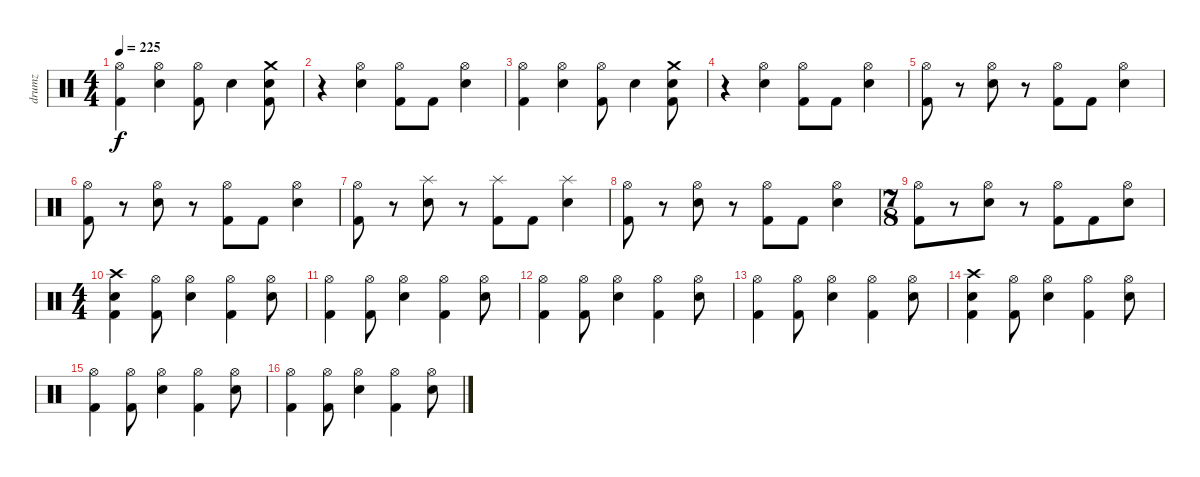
\track ("drumz" "drumz") {instrument percussion}
\staff {score}
\articulation defaults
\ts (4 4)
\tempo 225
\clef neutral
\ks c
("Hi-Hat (open)" "Kick (hit) 2").4{dy f} ("Hi-Hat (open)" "Electric Snare (hit)").4 ("Hi-Hat (open)" "Kick (hit) 2").8 "Electric Snare (hit)".4 ("Crash medium (hit)" "Electric Snare (hit)" "Kick (hit) 2").8 |
r.4 ("Hi-Hat (open)" "Electric Snare (hit)").4 ("Hi-Hat (open)" "Kick (hit) 2").8 "Kick (hit) 2".8 ("Hi-Hat (open)" "Electric Snare (hit)").4 |
("Hi-Hat (open)" "Kick (hit) 2").4 ("Hi-Hat (open)" "Electric Snare (hit)").4 ("Hi-Hat (open)" "Kick (hit) 2").8 "Electric Snare (hit)".4 ("Crash medium (hit)" "Electric Snare (hit)" "Kick (hit) 2").8 |
r.4 ("Hi-Hat (open)" "Electric Snare (hit)").4 ("Hi-Hat (open)" "Kick (hit) 2").8 "Kick (hit) 2".8 ("Hi-Hat (open)" "Electric Snare (hit)").4 |
("Hi-Hat (open)" "Kick (hit) 2").8 r.8 ("Hi-Hat (open)" "Electric Snare (hit)").8 r.8 ("Hi-Hat (open)" "Kick (hit) 2").8 "Kick (hit) 2".8 ("Hi-Hat (open)" "Electric Snare (hit)").4 |
("Hi-Hat (open)" "Kick (hit) 2").8 r.8 ("Hi-Hat (open)" "Electric Snare (hit)").8 r.8 ("Hi-Hat (open)" "Kick (hit) 2").8 "Kick (hit) 2".8 ("Hi-Hat (open)" "Electric Snare (hit)").4 |
("Hi-Hat (open)" "Kick (hit) 2").8 r.8 ("Splash (hit)" "Electric Snare (hit)").8 r.8 ("Splash (hit)" "Kick (hit) 2").8 "Kick (hit) 2".8 ("Splash (hit)" "Electric Snare (hit)").4 |
("Hi-Hat (open)" "Kick (hit) 2").8 r.8 ("Hi-Hat (open)" "Electric Snare (hit)").8 r.8 ("Hi-Hat (open)" "Kick (hit) 2").8 "Kick (hit) 2".8 ("Hi-Hat (open)" "Electric Snare (hit)").4 |
\ts (7 8)
("Hi-Hat (open)" "Kick (hit) 2").8 r.8 ("Hi-Hat (open)" "Electric Snare (hit)").8 r.8 ("Hi-Hat (open)" "Kick (hit) 2").8 "Kick (hit) 2".8 ("Hi-Hat (open)" "Electric Snare (hit)").8 |
\ts (4 4)
("Crash high (hit)" "Electric Snare (hit)" "Kick (hit) 2").4 ("Hi-Hat (open)" "Kick (hit) 2").8 ("Hi-Hat (open)" "Electric Snare (hit)").4 ("Hi-Hat (open)" "Kick (hit) 2").4 ("Hi-Hat (open)" "Electric Snare (hit)").8 |
("Hi-Hat (open)" "Kick (hit) 2").4 ("Hi-Hat (open)" "Kick (hit) 2").8 ("Hi-Hat (open)" "Electric Snare (hit)").4 ("Hi-Hat (open)" "Kick (hit) 2").4 ("Hi-Hat (open)" "Electric Snare (hit)").8 |
("Hi-Hat (open)" "Kick (hit) 2").4 ("Hi-Hat (open)" "Kick (hit) 2").8 ("Hi-Hat (open)" "Electric Snare (hit)").4 ("Hi-Hat (open)" "Kick (hit) 2").4 ("Hi-Hat (open)" "Electric Snare (hit)").8 |
("Hi-Hat (open)" "Kick (hit) 2").4 ("Hi-Hat (open)" "Kick (hit) 2").8 ("Hi-Hat (open)" "Electric Snare (hit)").4 ("Hi-Hat (open)" "Kick (hit) 2").4 ("Hi-Hat (open)" "Electric Snare (hit)").8 |
("Crash high (hit)" "Electric Snare (hit)" "Kick (hit) 2").4 ("Hi-Hat (open)" "Kick (hit) 2").8 ("Hi-Hat (open)" "Electric Snare (hit)").4 ("Hi-Hat (open)" "Kick (hit) 2").4 ("Hi-Hat (open)" "Electric Snare (hit)").8 |
("Hi-Hat (open)" "Kick (hit) 2").4 ("Hi-Hat (open)" "Kick (hit) 2").8 ("Hi-Hat (open)" "Electric Snare (hit)").4 ("Hi-Hat (open)" "Kick (hit) 2").4 ("Hi-Hat (open)" "Electric Snare (hit)").8 |
("Hi-Hat (open)" "Kick (hit) 2").4 ("Hi-Hat (open)" "Kick (hit) 2").8 ("Hi-Hat (open)" "Electric Snare (hit)").4 ("Hi-Hat (open)" "Kick (hit) 2").4 ("Hi-Hat (open)" "Electric Snare (hit)").8
